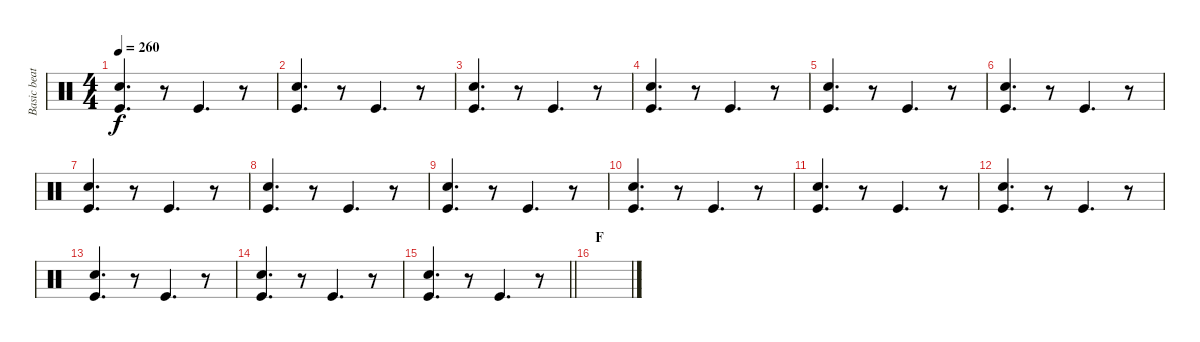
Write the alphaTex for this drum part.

\track ("Basic beat" "Basic beat") {instrument percussion}
\staff {score}
\articulation defaults
\ts (4 4)
\tempo 260
\clef neutral
\ks c
("Snare (hit) 2" "Kick (hit)").4{d dy f} r.8 "Kick (hit)".4{d} r.8 |
("Snare (hit) 2" "Kick (hit)").4{d} r.8 "Kick (hit)".4{d} r.8 |
("Snare (hit) 2" "Kick (hit)").4{d} r.8 "Kick (hit)".4{d} r.8 |
("Snare (hit) 2" "Kick (hit)").4{d} r.8 "Kick (hit)".4{d} r.8 |
("Snare (hit) 2" "Kick (hit)").4{d} r.8 "Kick (hit)".4{d} r.8 |
("Snare (hit) 2" "Kick (hit)").4{d} r.8 "Kick (hit)".4{d} r.8 |
("Snare (hit) 2" "Kick (hit)").4{d} r.8 "Kick (hit)".4{d} r.8 |
("Snare (hit) 2" "Kick (hit)").4{d} r.8 "Kick (hit)".4{d} r.8 |
("Snare (hit) 2" "Kick (hit)").4{d} r.8 "Kick (hit)".4{d} r.8 |
("Snare (hit) 2" "Kick (hit)").4{d} r.8 "Kick (hit)".4{d} r.8 |
("Snare (hit) 2" "Kick (hit)").4{d} r.8 "Kick (hit)".4{d} r.8 |
("Snare (hit) 2" "Kick (hit)").4{d} r.8 "Kick (hit)".4{d} r.8 |
("Snare (hit) 2" "Kick (hit)").4{d} r.8 "Kick (hit)".4{d} r.8 |
("Snare (hit) 2" "Kick (hit)").4{d} r.8 "Kick (hit)".4{d} r.8 |
\barLineRight lightlight
("Snare (hit) 2" "Kick (hit)").4{d} r.8 "Kick (hit)".4{d} r.8 |
\section ("" "F")
